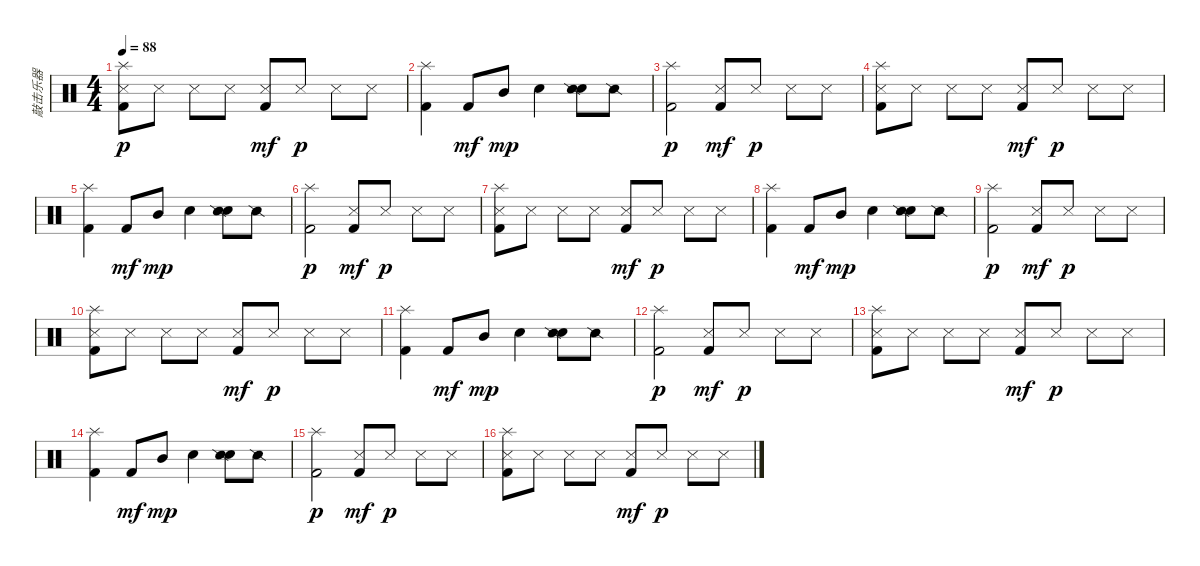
\track ("敲击乐器" "敲击乐器") {instrument percussion}
\staff {score}
\articulation defaults
\ts (4 4)
\tempo 88
\clef neutral
\ks c
("Kick (hit) 2" "Snare (side stick) 3" "Splash (hit)").8{dy p} "Snare (side stick) 3".8 "Snare (side stick) 3".8 "Snare (side stick) 3".8 ("Kick (hit) 2" "Snare (side stick) 3").8{dy mf} "Snare (side stick) 3".8{dy p} "Snare (side stick) 3".8 "Snare (side stick) 3".8 |
("Kick (hit) 2" "Splash (hit)").4 "Kick (hit) 2".8{dy mf} "Mid Tom (hit)".8{dy mp} "Snare (hit) 2".4 ("Snare (hit) 2" "Snare (side stick) 2").8 "Snare (side stick) 2".8 |
("Kick (hit) 2" "Splash (hit)").2{dy p} ("Kick (hit) 2" "Snare (side stick) 3").8{dy mf} "Snare (side stick) 3".8{dy p} "Snare (side stick) 3".8 "Snare (side stick) 3".8 |
("Kick (hit) 2" "Snare (side stick) 3" "Splash (hit)").8 "Snare (side stick) 3".8 "Snare (side stick) 3".8 "Snare (side stick) 3".8 ("Kick (hit) 2" "Snare (side stick) 3").8{dy mf} "Snare (side stick) 3".8{dy p} "Snare (side stick) 3".8 "Snare (side stick) 3".8 |
("Kick (hit) 2" "Splash (hit)").4 "Kick (hit) 2".8{dy mf} "Mid Tom (hit)".8{dy mp} "Snare (hit) 2".4 ("Snare (hit) 2" "Snare (side stick) 2").8 "Snare (side stick) 2".8 |
("Kick (hit) 2" "Splash (hit)").2{dy p} ("Kick (hit) 2" "Snare (side stick) 3").8{dy mf} "Snare (side stick) 3".8{dy p} "Snare (side stick) 3".8 "Snare (side stick) 3".8 |
("Kick (hit) 2" "Snare (side stick) 3" "Splash (hit)").8 "Snare (side stick) 3".8 "Snare (side stick) 3".8 "Snare (side stick) 3".8 ("Kick (hit) 2" "Snare (side stick) 3").8{dy mf} "Snare (side stick) 3".8{dy p} "Snare (side stick) 3".8 "Snare (side stick) 3".8 |
("Kick (hit) 2" "Splash (hit)").4 "Kick (hit) 2".8{dy mf} "Mid Tom (hit)".8{dy mp} "Snare (hit) 2".4 ("Snare (hit) 2" "Snare (side stick) 2").8 "Snare (side stick) 2".8 |
("Kick (hit) 2" "Splash (hit)").2{dy p} ("Kick (hit) 2" "Snare (side stick) 3").8{dy mf} "Snare (side stick) 3".8{dy p} "Snare (side stick) 3".8 "Snare (side stick) 3".8 |
("Kick (hit) 2" "Snare (side stick) 3" "Splash (hit)").8 "Snare (side stick) 3".8 "Snare (side stick) 3".8 "Snare (side stick) 3".8 ("Kick (hit) 2" "Snare (side stick) 3").8{dy mf} "Snare (side stick) 3".8{dy p} "Snare (side stick) 3".8 "Snare (side stick) 3".8 |
("Kick (hit) 2" "Splash (hit)").4 "Kick (hit) 2".8{dy mf} "Mid Tom (hit)".8{dy mp} "Snare (hit) 2".4 ("Snare (hit) 2" "Snare (side stick) 2").8 "Snare (side stick) 2".8 |
("Kick (hit) 2" "Splash (hit)").2{dy p} ("Kick (hit) 2" "Snare (side stick) 3").8{dy mf} "Snare (side stick) 3".8{dy p} "Snare (side stick) 3".8 "Snare (side stick) 3".8 |
("Kick (hit) 2" "Snare (side stick) 3" "Splash (hit)").8 "Snare (side stick) 3".8 "Snare (side stick) 3".8 "Snare (side stick) 3".8 ("Kick (hit) 2" "Snare (side stick) 3").8{dy mf} "Snare (side stick) 3".8{dy p} "Snare (side stick) 3".8 "Snare (side stick) 3".8 |
("Kick (hit) 2" "Splash (hit)").4 "Kick (hit) 2".8{dy mf} "Mid Tom (hit)".8{dy mp} "Snare (hit) 2".4 ("Snare (hit) 2" "Snare (side stick) 2").8 "Snare (side stick) 2".8 |
("Kick (hit) 2" "Splash (hit)").2{dy p} ("Kick (hit) 2" "Snare (side stick) 3").8{dy mf} "Snare (side stick) 3".8{dy p} "Snare (side stick) 3".8 "Snare (side stick) 3".8 |
("Kick (hit) 2" "Snare (side stick) 3" "Splash (hit)").8 "Snare (side stick) 3".8 "Snare (side stick) 3".8 "Snare (side stick) 3".8 ("Kick (hit) 2" "Snare (side stick) 3").8{dy mf} "Snare (side stick) 3".8{dy p} "Snare (side stick) 3".8 "Snare (side stick) 3".8
